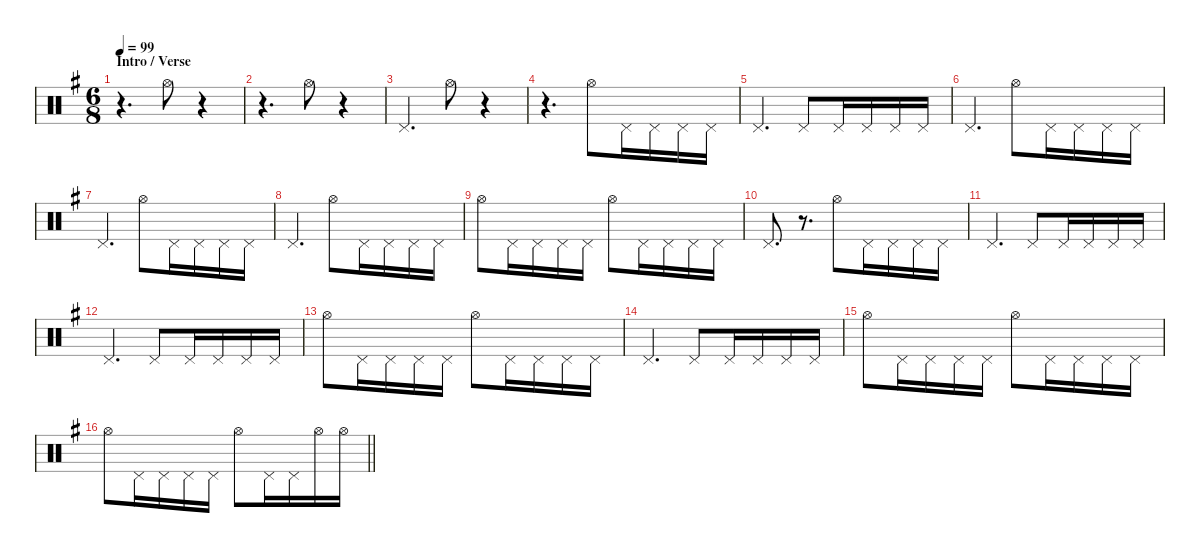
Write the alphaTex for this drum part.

\defaultSystemsLayout 4
\hideDynamics
\bracketExtendMode nobrackets
\singleTrackTrackNamePolicy hidden
\multiTrackTrackNamePolicy hidden
\otherSystemsTrackNameOrientation horizontal
\track ("Dave Abbruzzese" "drm.") {defaultSystemsLayout 4 instrument percussion}
\staff {score}
\articulation defaults
\ts (6 8)
\beaming (8 3 3)
\section ("" "Intro / Verse")
\tempo 99
\clef neutral
\ks g
r.4{d dy p beam Down} "Hi-Hat (open)"{acc forcenatural}.8{beam Down} r.4{beam Down} |
r.4{d beam Down} "Hi-Hat (open)"{acc forcenatural}.8{beam Down} r.4{beam Down} |
"Pedal Hi-Hat (hit)"{acc forcenatural}.4{d dy pp beam Up} "Hi-Hat (open)"{acc forcenatural}.8{dy mp beam Down} r.4{beam Down} |
r.4{d beam Down} "Hi-Hat (open)"{acc forcenatural}.8{beam Down} "Pedal Hi-Hat (hit)"{acc forcenatural}.16{dy pp beam Down} "Pedal Hi-Hat (hit)"{acc forcenatural}.16{beam Down} "Pedal Hi-Hat (hit)"{acc forcenatural}.16{beam Down} "Pedal Hi-Hat (hit)"{acc forcenatural}.16{beam Down} |
"Pedal Hi-Hat (hit)"{acc forcenatural}.4{d beam Up} "Pedal Hi-Hat (hit)"{acc forcenatural}.8{beam Up} "Pedal Hi-Hat (hit)"{acc forcenatural}.16{beam Up} "Pedal Hi-Hat (hit)"{acc forcenatural}.16{beam Up} "Pedal Hi-Hat (hit)"{acc forcenatural}.16{beam Up} "Pedal Hi-Hat (hit)"{acc forcenatural}.16{beam Up} |
"Pedal Hi-Hat (hit)"{acc forcenatural}.4{d beam Up} "Hi-Hat (open)"{acc forcenatural}.8{dy mp beam Down} "Pedal Hi-Hat (hit)"{acc forcenatural}.16{dy pp beam Down} "Pedal Hi-Hat (hit)"{acc forcenatural}.16{beam Down} "Pedal Hi-Hat (hit)"{acc forcenatural}.16{beam Down} "Pedal Hi-Hat (hit)"{acc forcenatural}.16{beam Down} |
"Pedal Hi-Hat (hit)"{acc forcenatural}.4{d beam Up} "Hi-Hat (open)"{acc forcenatural}.8{dy mp beam Down} "Pedal Hi-Hat (hit)"{acc forcenatural}.16{dy pp beam Down} "Pedal Hi-Hat (hit)"{acc forcenatural}.16{beam Down} "Pedal Hi-Hat (hit)"{acc forcenatural}.16{beam Down} "Pedal Hi-Hat (hit)"{acc forcenatural}.16{beam Down} |
"Pedal Hi-Hat (hit)"{acc forcenatural}.4{d beam Up} "Hi-Hat (open)"{acc forcenatural}.8{dy mp beam Down} "Pedal Hi-Hat (hit)"{acc forcenatural}.16{dy pp beam Down} "Pedal Hi-Hat (hit)"{acc forcenatural}.16{beam Down} "Pedal Hi-Hat (hit)"{acc forcenatural}.16{beam Down} "Pedal Hi-Hat (hit)"{acc forcenatural}.16{beam Down} |
"Hi-Hat (open)"{acc forcenatural}.8{dy mp beam Down} "Pedal Hi-Hat (hit)"{acc forcenatural}.16{dy pp beam Down} "Pedal Hi-Hat (hit)"{acc forcenatural}.16{beam Down} "Pedal Hi-Hat (hit)"{acc forcenatural}.16{beam Down} "Pedal Hi-Hat (hit)"{acc forcenatural}.16{beam Down} "Hi-Hat (open)"{acc forcenatural}.8{dy mp beam Down} "Pedal Hi-Hat (hit)"{acc forcenatural}.16{dy pp beam Down} "Pedal Hi-Hat (hit)"{acc forcenatural}.16{beam Down} "Pedal Hi-Hat (hit)"{acc forcenatural}.16{beam Down} "Pedal Hi-Hat (hit)"{acc forcenatural}.16{beam Down} |
"Pedal Hi-Hat (hit)"{acc forcenatural}.8{d beam Up} r.8{d beam Up} "Hi-Hat (open)"{acc forcenatural}.8{dy mp beam Down} "Pedal Hi-Hat (hit)"{acc forcenatural}.16{dy pp beam Down} "Pedal Hi-Hat (hit)"{acc forcenatural}.16{beam Down} "Pedal Hi-Hat (hit)"{acc forcenatural}.16{beam Down} "Pedal Hi-Hat (hit)"{acc forcenatural}.16{beam Down} |
"Pedal Hi-Hat (hit)"{acc forcenatural}.4{d beam Up} "Pedal Hi-Hat (hit)"{acc forcenatural}.8{beam Up} "Pedal Hi-Hat (hit)"{acc forcenatural}.16{beam Up} "Pedal Hi-Hat (hit)"{acc forcenatural}.16{beam Up} "Pedal Hi-Hat (hit)"{acc forcenatural}.16{beam Up} "Pedal Hi-Hat (hit)"{acc forcenatural}.16{beam Up} |
"Pedal Hi-Hat (hit)"{acc forcenatural}.4{d beam Up} "Pedal Hi-Hat (hit)"{acc forcenatural}.8{beam Up} "Pedal Hi-Hat (hit)"{acc forcenatural}.16{beam Up} "Pedal Hi-Hat (hit)"{acc forcenatural}.16{beam Up} "Pedal Hi-Hat (hit)"{acc forcenatural}.16{beam Up} "Pedal Hi-Hat (hit)"{acc forcenatural}.16{beam Up} |
"Hi-Hat (open)"{acc forcenatural}.8{dy mp beam Down} "Pedal Hi-Hat (hit)"{acc forcenatural}.16{dy pp beam Down} "Pedal Hi-Hat (hit)"{acc forcenatural}.16{beam Down} "Pedal Hi-Hat (hit)"{acc forcenatural}.16{beam Down} "Pedal Hi-Hat (hit)"{acc forcenatural}.16{beam Down} "Hi-Hat (open)"{acc forcenatural}.8{dy mp beam Down} "Pedal Hi-Hat (hit)"{acc forcenatural}.16{dy pp beam Down} "Pedal Hi-Hat (hit)"{acc forcenatural}.16{beam Down} "Pedal Hi-Hat (hit)"{acc forcenatural}.16{beam Down} "Pedal Hi-Hat (hit)"{acc forcenatural}.16{beam Down} |
"Pedal Hi-Hat (hit)"{acc forcenatural}.4{d beam Up} "Pedal Hi-Hat (hit)"{acc forcenatural}.8{beam Up} "Pedal Hi-Hat (hit)"{acc forcenatural}.16{beam Up} "Pedal Hi-Hat (hit)"{acc forcenatural}.16{beam Up} "Pedal Hi-Hat (hit)"{acc forcenatural}.16{beam Up} "Pedal Hi-Hat (hit)"{acc forcenatural}.16{beam Up} |
"Hi-Hat (open)"{acc forcenatural}.8{dy mp beam Down} "Pedal Hi-Hat (hit)"{acc forcenatural}.16{dy pp beam Down} "Pedal Hi-Hat (hit)"{acc forcenatural}.16{beam Down} "Pedal Hi-Hat (hit)"{acc forcenatural}.16{beam Down} "Pedal Hi-Hat (hit)"{acc forcenatural}.16{beam Down} "Hi-Hat (open)"{acc forcenatural}.8{dy mp beam Down} "Pedal Hi-Hat (hit)"{acc forcenatural}.16{dy pp beam Down} "Pedal Hi-Hat (hit)"{acc forcenatural}.16{beam Down} "Pedal Hi-Hat (hit)"{acc forcenatural}.16{beam Down} "Pedal Hi-Hat (hit)"{acc forcenatural}.16{beam Down} |
\barLineRight lightlight "Hi-Hat (open)"{acc forcenatural}.8{dy mp beam Down} "Pedal Hi-Hat (hit)"{acc forcenatural}.16{dy pp beam Down} "Pedal Hi-Hat (hit)"{acc forcenatural}.16{beam Down} "Pedal Hi-Hat (hit)"{acc forcenatural}.16{beam Down} "Pedal Hi-Hat (hit)"{acc forcenatural}.16{beam Down} "Hi-Hat (open)"{acc forcenatural}.8{dy mp beam Down} "Pedal Hi-Hat (hit)"{acc forcenatural}.16{dy pp beam Down} "Pedal Hi-Hat (hit)"{acc forcenatural}.16{beam Down} "Hi-Hat (open)"{acc forcenatural}.16{dy f beam Down} "Hi-Hat (open)"{acc forcenatural}.16{beam Down}
